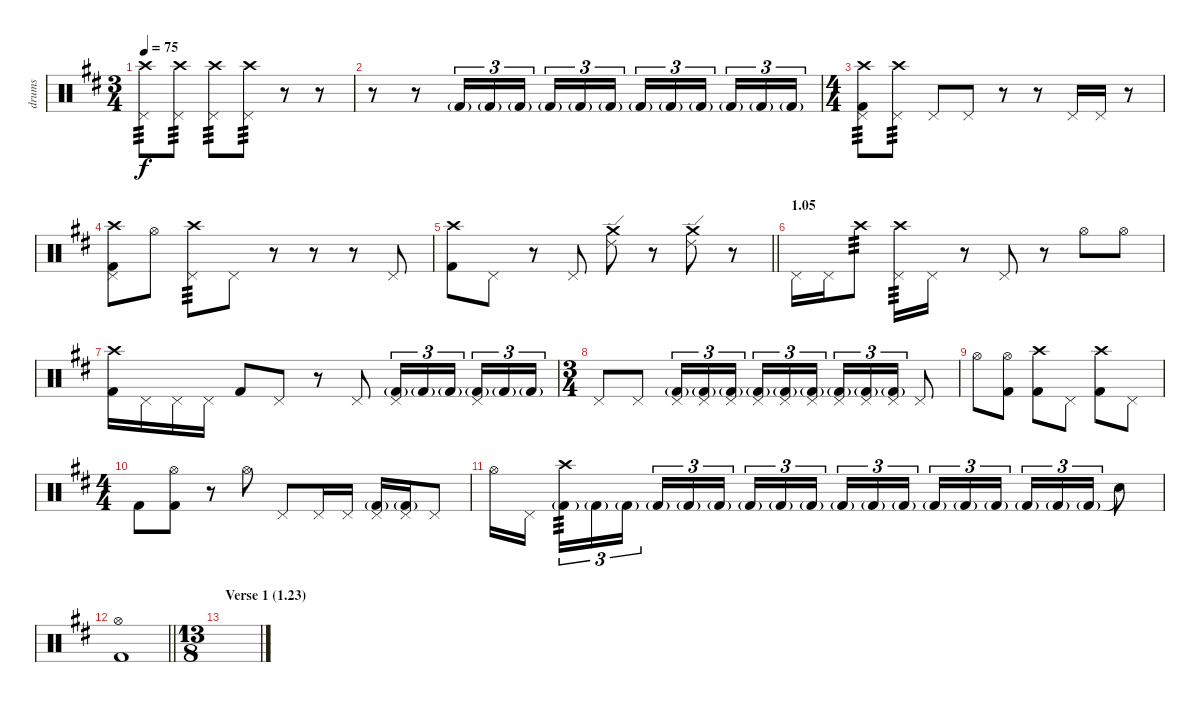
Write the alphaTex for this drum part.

\track ("drums" "drums") {instrument percussion}
\staff {score}
\articulation defaults
\ts (3 4)
\tempo 75
\clef neutral
\ks d
("Pedal Hi-Hat (hit)" "Crash high (hit)").8{tp 3 dy f} ("Pedal Hi-Hat (hit)" "Crash high (hit)").8{tp 3} ("Pedal Hi-Hat (hit)" "Crash high (hit)").8{tp 3} ("Pedal Hi-Hat (hit)" "Crash high (hit)").8{tp 3} r.8 r.8 |
r.8 r.8 "Kick (hit) 2"{g}.16{tu (3 2)} "Kick (hit) 2"{g}.16{tu (3 2)} "Kick (hit) 2"{g}.16{tu (3 2) beam splitsecondary} "Kick (hit) 2"{g}.16{tu (3 2)} "Kick (hit) 2"{g}.16{tu (3 2)} "Kick (hit) 2"{g}.16{tu (3 2)} "Kick (hit) 2"{g}.16{tu (3 2)} "Kick (hit) 2"{g}.16{tu (3 2)} "Kick (hit) 2"{g}.16{tu (3 2) beam splitsecondary} "Kick (hit) 2"{g}.16{tu (3 2)} "Kick (hit) 2"{g}.16{tu (3 2)} "Kick (hit) 2"{g}.16{tu (3 2)} |
\ts (4 4)
("Pedal Hi-Hat (hit)" "Crash high (hit)" "Kick (hit) 2").8{tp 3} ("Pedal Hi-Hat (hit)" "Crash high (hit)").8{tp 3} "Pedal Hi-Hat (hit)".8 "Pedal Hi-Hat (hit)".8 r.8 r.8 "Pedal Hi-Hat (hit)".16 "Pedal Hi-Hat (hit)".16 r.8 |
("Pedal Hi-Hat (hit)" "Crash high (hit)" "Kick (hit) 2").8 "Hi-Hat (open)".8 ("Pedal Hi-Hat (hit)" "Crash high (hit)").8{tp 3} "Pedal Hi-Hat (hit)".8 r.8 r.8 r.8 "Pedal Hi-Hat (hit)".8 |
\barLineRight lightlight
("Crash high (hit)" "Kick (hit) 2").8 "Pedal Hi-Hat (hit)".8 r.8 "Pedal Hi-Hat (hit)".8 ("Ride (edge) 2" "Crash medium (hit)").8 r.8 ("Ride (edge) 2" "Crash medium (hit)").8 r.8 |
\section ("" "1.05")
"Pedal Hi-Hat (hit)".16 "Pedal Hi-Hat (hit)".16 "Crash high (hit)".8{tp 3} ("Pedal Hi-Hat (hit)" "Crash high (hit)").16{tp 3} "Pedal Hi-Hat (hit)".16 r.8 "Pedal Hi-Hat (hit)".8 r.8 "Hi-Hat (open)".8 "Hi-Hat (open)".8 |
("Crash high (hit)" "Kick (hit) 2").16 "Pedal Hi-Hat (hit)".16 "Pedal Hi-Hat (hit)".16 "Pedal Hi-Hat (hit)".16 "Kick (hit) 2".8 "Pedal Hi-Hat (hit)".8 r.8 "Pedal Hi-Hat (hit)".8 ("Pedal Hi-Hat (hit)" "Kick (hit) 2"{g}).16{tu (3 2)} "Kick (hit) 2"{g}.16{tu (3 2)} "Kick (hit) 2"{g}.16{tu (3 2) beam splitsecondary} ("Pedal Hi-Hat (hit)" "Kick (hit) 2"{g}).16{tu (3 2)} "Kick (hit) 2"{g}.16{tu (3 2)} "Kick (hit) 2"{g}.16{tu (3 2)} |
\ts (3 4)
"Pedal Hi-Hat (hit)".8 "Pedal Hi-Hat (hit)".8 ("Pedal Hi-Hat (hit)" "Kick (hit) 2"{g}).16{tu (3 2)} ("Pedal Hi-Hat (hit)" "Kick (hit) 2"{g}).16{tu (3 2)} ("Pedal Hi-Hat (hit)" "Kick (hit) 2"{g}).16{tu (3 2) beam splitsecondary} ("Pedal Hi-Hat (hit)" "Kick (hit) 2"{g}).16{tu (3 2)} ("Pedal Hi-Hat (hit)" "Kick (hit) 2"{g}).16{tu (3 2)} ("Pedal Hi-Hat (hit)" "Kick (hit) 2"{g}).16{tu (3 2)} ("Pedal Hi-Hat (hit)" "Kick (hit) 2"{g}).16{tu (3 2)} ("Pedal Hi-Hat (hit)" "Kick (hit) 2"{g}).16{tu (3 2)} ("Pedal Hi-Hat (hit)" "Kick (hit) 2"{g}).16{tu (3 2)} "Pedal Hi-Hat (hit)".8 |
"Hi-Hat (open)".8 ("Hi-Hat (open)" "Kick (hit) 2").8 ("Crash high (hit)" "Kick (hit) 2").8 "Pedal Hi-Hat (hit)".8 ("Crash high (hit)" "Kick (hit) 2").8 "Pedal Hi-Hat (hit)".8 |
\ts (4 4)
"Kick (hit) 2".8 ("Hi-Hat (open)" "Kick (hit) 2").8 r.8 "Hi-Hat (open)".8 "Pedal Hi-Hat (hit)".8 "Pedal Hi-Hat (hit)".16 "Pedal Hi-Hat (hit)".16 ("Pedal Hi-Hat (hit)" "Kick (hit) 2"{g}).16 ("Pedal Hi-Hat (hit)" "Kick (hit) 2"{g}).16 "Pedal Hi-Hat (hit)".8 |
"Hi-Hat (open)".16 "Pedal Hi-Hat (hit)".16{beam splitsecondary} ("Crash high (hit)" "Kick (hit) 2"{g}).16{tu (3 2) tp 3} "Kick (hit) 2"{g}.16{tu (3 2)} "Kick (hit) 2"{g}.16{tu (3 2)} "Kick (hit) 2"{g}.16{tu (3 2)} "Kick (hit) 2"{g}.16{tu (3 2)} "Kick (hit) 2"{g}.16{tu (3 2) beam splitsecondary} "Kick (hit) 2"{g}.16{tu (3 2)} "Kick (hit) 2"{g}.16{tu (3 2)} "Kick (hit) 2"{g}.16{tu (3 2)} "Kick (hit) 2"{g}.16{tu (3 2)} "Kick (hit) 2"{g}.16{tu (3 2)} "Kick (hit) 2"{g}.16{tu (3 2) beam splitsecondary} "Kick (hit) 2"{g}.16{tu (3 2)} "Kick (hit) 2"{g}.16{tu (3 2)} "Kick (hit) 2"{g}.16{tu (3 2)} "Kick (hit) 2"{g}.16{tu (3 2)} "Kick (hit) 2"{g}.16{tu (3 2)} "Kick (hit) 2"{g}.16{tu (3 2)} "Snare (hit)"{t}.8 |
\barLineRight lightlight
("Hi-Hat (open)" "Kick (hit) 2").1 |
\ts (13 8)
\section ("" "Verse 1 (1.23)")
